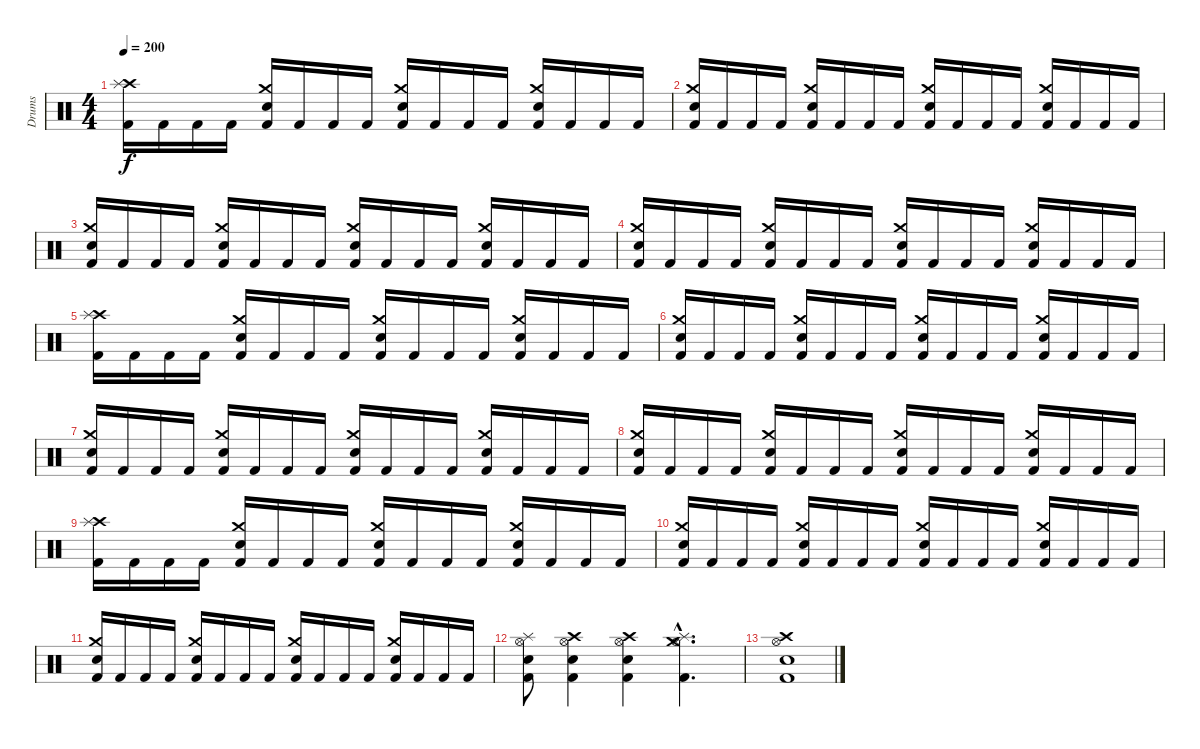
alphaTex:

\track ("Drums" "Drums") {instrument percussion}
\staff {score}
\articulation defaults
\ts (4 4)
\tempo 200
\clef neutral
\ks c
("Kick (hit) 2" "Crash high (hit)" "Splash (hit)").16{dy f} "Kick (hit) 2".16 "Kick (hit) 2".16 "Kick (hit) 2".16 ("Kick (hit) 2" "Crash medium (hit)" "Snare (hit) 2").16 "Kick (hit) 2".16 "Kick (hit) 2".16 "Kick (hit) 2".16 ("Kick (hit) 2" "Crash medium (hit)" "Snare (hit) 2").16 "Kick (hit) 2".16 "Kick (hit) 2".16 "Kick (hit) 2".16 ("Kick (hit) 2" "Crash medium (hit)" "Snare (hit) 2").16 "Kick (hit) 2".16 "Kick (hit) 2".16 "Kick (hit) 2".16 |
("Kick (hit) 2" "Crash medium (hit)" "Snare (hit) 2").16 "Kick (hit) 2".16 "Kick (hit) 2".16 "Kick (hit) 2".16 ("Kick (hit) 2" "Crash medium (hit)" "Snare (hit) 2").16 "Kick (hit) 2".16 "Kick (hit) 2".16 "Kick (hit) 2".16 ("Kick (hit) 2" "Crash medium (hit)" "Snare (hit) 2").16 "Kick (hit) 2".16 "Kick (hit) 2".16 "Kick (hit) 2".16 ("Kick (hit) 2" "Crash medium (hit)" "Snare (hit) 2").16 "Kick (hit) 2".16 "Kick (hit) 2".16 "Kick (hit) 2".16 |
("Kick (hit) 2" "Crash medium (hit)" "Snare (hit) 2").16 "Kick (hit) 2".16 "Kick (hit) 2".16 "Kick (hit) 2".16 ("Kick (hit) 2" "Crash medium (hit)" "Snare (hit) 2").16 "Kick (hit) 2".16 "Kick (hit) 2".16 "Kick (hit) 2".16 ("Kick (hit) 2" "Crash medium (hit)" "Snare (hit) 2").16 "Kick (hit) 2".16 "Kick (hit) 2".16 "Kick (hit) 2".16 ("Kick (hit) 2" "Crash medium (hit)" "Snare (hit) 2").16 "Kick (hit) 2".16 "Kick (hit) 2".16 "Kick (hit) 2".16 |
("Kick (hit) 2" "Crash medium (hit)" "Snare (hit) 2").16 "Kick (hit) 2".16 "Kick (hit) 2".16 "Kick (hit) 2".16 ("Kick (hit) 2" "Crash medium (hit)" "Snare (hit) 2").16 "Kick (hit) 2".16 "Kick (hit) 2".16 "Kick (hit) 2".16 ("Kick (hit) 2" "Crash medium (hit)" "Snare (hit) 2").16 "Kick (hit) 2".16 "Kick (hit) 2".16 "Kick (hit) 2".16 ("Kick (hit) 2" "Crash medium (hit)" "Snare (hit) 2").16 "Kick (hit) 2".16 "Kick (hit) 2".16 "Kick (hit) 2".16 |
("Kick (hit) 2" "Crash high (hit)" "Splash (hit)").16 "Kick (hit) 2".16 "Kick (hit) 2".16 "Kick (hit) 2".16 ("Kick (hit) 2" "Crash medium (hit)" "Snare (hit) 2").16 "Kick (hit) 2".16 "Kick (hit) 2".16 "Kick (hit) 2".16 ("Kick (hit) 2" "Crash medium (hit)" "Snare (hit) 2").16 "Kick (hit) 2".16 "Kick (hit) 2".16 "Kick (hit) 2".16 ("Kick (hit) 2" "Crash medium (hit)" "Snare (hit) 2").16 "Kick (hit) 2".16 "Kick (hit) 2".16 "Kick (hit) 2".16 |
("Kick (hit) 2" "Crash medium (hit)" "Snare (hit) 2").16 "Kick (hit) 2".16 "Kick (hit) 2".16 "Kick (hit) 2".16 ("Kick (hit) 2" "Crash medium (hit)" "Snare (hit) 2").16 "Kick (hit) 2".16 "Kick (hit) 2".16 "Kick (hit) 2".16 ("Kick (hit) 2" "Crash medium (hit)" "Snare (hit) 2").16 "Kick (hit) 2".16 "Kick (hit) 2".16 "Kick (hit) 2".16 ("Kick (hit) 2" "Crash medium (hit)" "Snare (hit) 2").16 "Kick (hit) 2".16 "Kick (hit) 2".16 "Kick (hit) 2".16 |
("Kick (hit) 2" "Crash medium (hit)" "Snare (hit) 2").16 "Kick (hit) 2".16 "Kick (hit) 2".16 "Kick (hit) 2".16 ("Kick (hit) 2" "Crash medium (hit)" "Snare (hit) 2").16 "Kick (hit) 2".16 "Kick (hit) 2".16 "Kick (hit) 2".16 ("Kick (hit) 2" "Crash medium (hit)" "Snare (hit) 2").16 "Kick (hit) 2".16 "Kick (hit) 2".16 "Kick (hit) 2".16 ("Kick (hit) 2" "Crash medium (hit)" "Snare (hit) 2").16 "Kick (hit) 2".16 "Kick (hit) 2".16 "Kick (hit) 2".16 |
("Kick (hit) 2" "Crash medium (hit)" "Snare (hit) 2").16 "Kick (hit) 2".16 "Kick (hit) 2".16 "Kick (hit) 2".16 ("Kick (hit) 2" "Crash medium (hit)" "Snare (hit) 2").16 "Kick (hit) 2".16 "Kick (hit) 2".16 "Kick (hit) 2".16 ("Kick (hit) 2" "Crash medium (hit)" "Snare (hit) 2").16 "Kick (hit) 2".16 "Kick (hit) 2".16 "Kick (hit) 2".16 ("Kick (hit) 2" "Crash medium (hit)" "Snare (hit) 2").16 "Kick (hit) 2".16 "Kick (hit) 2".16 "Kick (hit) 2".16 |
("Kick (hit) 2" "Crash high (hit)" "Splash (hit)").16 "Kick (hit) 2".16 "Kick (hit) 2".16 "Kick (hit) 2".16 ("Kick (hit) 2" "Crash medium (hit)" "Snare (hit) 2").16 "Kick (hit) 2".16 "Kick (hit) 2".16 "Kick (hit) 2".16 ("Kick (hit) 2" "Crash medium (hit)" "Snare (hit) 2").16 "Kick (hit) 2".16 "Kick (hit) 2".16 "Kick (hit) 2".16 ("Kick (hit) 2" "Crash medium (hit)" "Snare (hit) 2").16 "Kick (hit) 2".16 "Kick (hit) 2".16 "Kick (hit) 2".16 |
("Kick (hit) 2" "Crash medium (hit)" "Snare (hit) 2").16 "Kick (hit) 2".16 "Kick (hit) 2".16 "Kick (hit) 2".16 ("Kick (hit) 2" "Crash medium (hit)" "Snare (hit) 2").16 "Kick (hit) 2".16 "Kick (hit) 2".16 "Kick (hit) 2".16 ("Kick (hit) 2" "Crash medium (hit)" "Snare (hit) 2").16 "Kick (hit) 2".16 "Kick (hit) 2".16 "Kick (hit) 2".16 ("Kick (hit) 2" "Crash medium (hit)" "Snare (hit) 2").16 "Kick (hit) 2".16 "Kick (hit) 2".16 "Kick (hit) 2".16 |
("Kick (hit) 2" "Crash medium (hit)" "Snare (hit) 2").16 "Kick (hit) 2".16 "Kick (hit) 2".16 "Kick (hit) 2".16 ("Kick (hit) 2" "Crash medium (hit)" "Snare (hit) 2").16 "Kick (hit) 2".16 "Kick (hit) 2".16 "Kick (hit) 2".16 ("Kick (hit) 2" "Crash medium (hit)" "Snare (hit) 2").16 "Kick (hit) 2".16 "Kick (hit) 2".16 "Kick (hit) 2".16 ("Kick (hit) 2" "Crash medium (hit)" "Snare (hit) 2").16 "Kick (hit) 2".16 "Kick (hit) 2".16 "Kick (hit) 2".16 |
("Kick (hit) 2" "Hi-Hat (open)" "Snare (hit) 2" "Splash (hit)").8 ("Kick (hit) 2" "Hi-Hat (open)" "Snare (hit) 2" "Crash high (hit)").4 ("Kick (hit) 2" "Hi-Hat (open)" "Snare (hit) 2" "Crash high (hit)").4 ("Kick (hit) 2"{hac} "Hi-Hat (open)"{hac} "Splash (hit)"{hac} "Crash medium (hit)"{hac}).4{d} |
("Kick (hit) 2" "Hi-Hat (open)" "Snare (hit) 2" "Crash high (hit)").1
